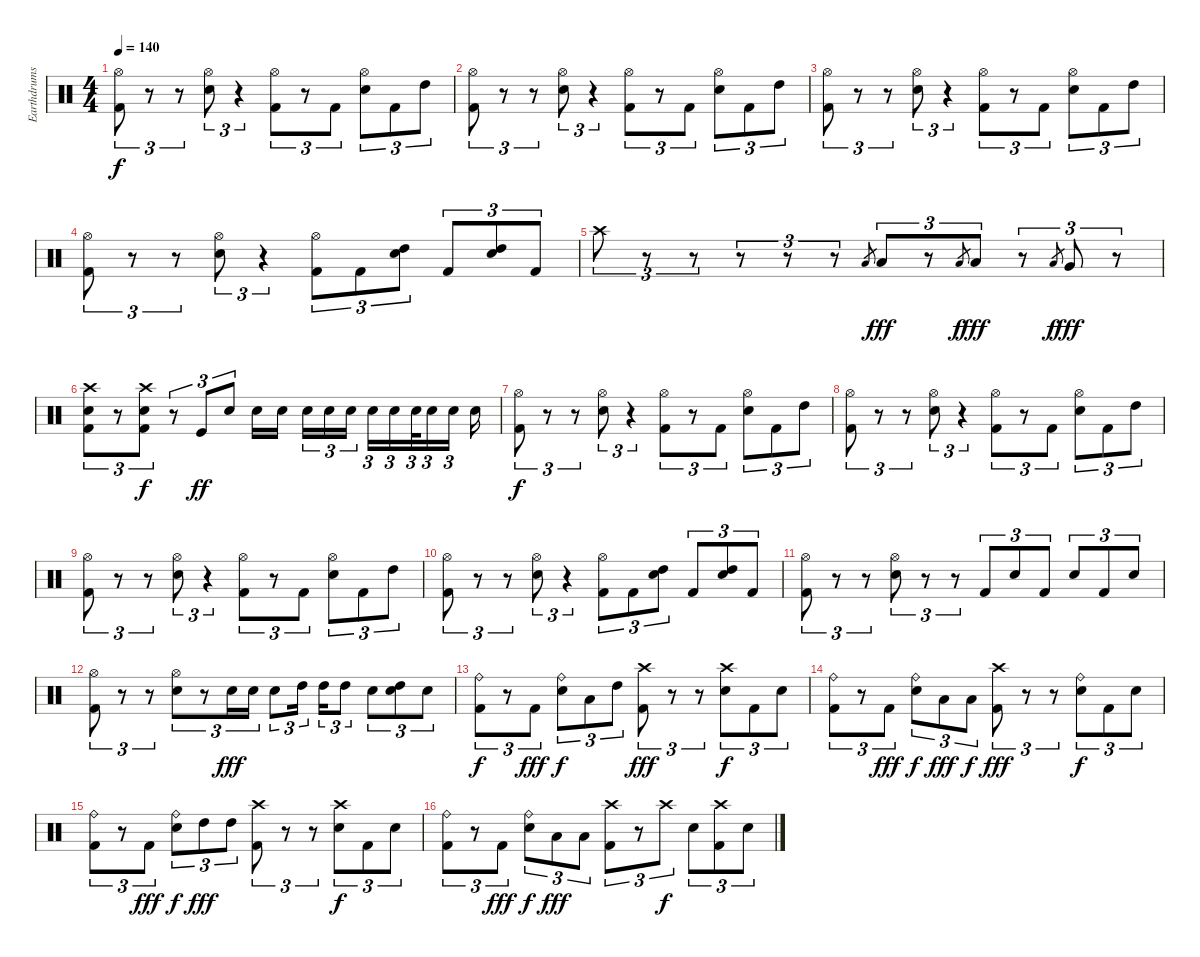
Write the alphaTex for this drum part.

\track ("Earthdrums" "Earthdrums") {instrument percussion}
\staff {score}
\articulation defaults
\ts (4 4)
\tempo 140
\clef neutral
\ks c
("Hi-Hat (open)" "Kick (hit) 2").8{tu (3 2) dy f} r.8{tu (3 2)} r.8{tu (3 2)} ("Hi-Hat (open)" "Snare (hit) 2").8{tu (3 2)} r.4{tu (3 2)} ("Hi-Hat (open)" "Kick (hit) 2").8{tu (3 2)} r.8{tu (3 2)} "Kick (hit) 2".8{tu (3 2)} ("Hi-Hat (open)" "Snare (hit) 2").8{tu (3 2)} "Kick (hit) 2".8{tu (3 2)} "High Tom (hit)".8{tu (3 2)} |
("Hi-Hat (open)" "Kick (hit) 2").8{tu (3 2)} r.8{tu (3 2)} r.8{tu (3 2)} ("Hi-Hat (open)" "Snare (hit) 2").8{tu (3 2)} r.4{tu (3 2)} ("Hi-Hat (open)" "Kick (hit) 2").8{tu (3 2)} r.8{tu (3 2)} "Kick (hit) 2".8{tu (3 2)} ("Hi-Hat (open)" "Snare (hit) 2").8{tu (3 2)} "Kick (hit) 2".8{tu (3 2)} "High Tom (hit)".8{tu (3 2)} |
("Hi-Hat (open)" "Kick (hit) 2").8{tu (3 2)} r.8{tu (3 2)} r.8{tu (3 2)} ("Hi-Hat (open)" "Snare (hit) 2").8{tu (3 2)} r.4{tu (3 2)} ("Hi-Hat (open)" "Kick (hit) 2").8{tu (3 2)} r.8{tu (3 2)} "Kick (hit) 2".8{tu (3 2)} ("Hi-Hat (open)" "Snare (hit) 2").8{tu (3 2)} "Kick (hit) 2".8{tu (3 2)} "High Tom (hit)".8{tu (3 2)} |
("Hi-Hat (open)" "Kick (hit) 2").8{tu (3 2)} r.8{tu (3 2)} r.8{tu (3 2)} ("Hi-Hat (open)" "Snare (hit) 2").8{tu (3 2)} r.4{tu (3 2)} ("Hi-Hat (open)" "Kick (hit) 2").8{tu (3 2)} "Kick (hit) 2".8{tu (3 2)} ("High Tom (hit)" "Snare (hit) 2").8{tu (3 2)} "Kick (hit) 2".8{tu (3 2)} ("High Tom (hit)" "Snare (hit) 2").8{tu (3 2)} "Kick (hit) 2".8{tu (3 2)} |
"Crash high (hit)".8{tu (3 2)} r.8{tu (3 2)} r.8{tu (3 2)} r.8{tu (3 2)} r.8{tu (3 2)} r.8{tu (3 2)} "Low Tom (hit)".8{gr} "Low Tom (hit)".8{tu (3 2) dy fff} r.8{tu (3 2)} "Low Tom (hit)".8{gr dy f} "Low Tom (hit)".8{tu (3 2) dy fff} r.8{tu (3 2)} "Low Tom (hit)".8{gr dy f} "Very Low Tom (hit)".8{tu (3 2) dy fff} r.8{tu (3 2)} |
("Crash high (hit)" "Snare (hit) 2" "Kick (hit) 2").8{tu (3 2)} r.8{tu (3 2)} ("Crash high (hit)" "Snare (hit) 2" "Kick (hit) 2").8{tu (3 2) dy f} r.8{tu (3 2)} "Kick (hit)".8{tu (3 2) dy ff} "Snare (hit) 2".8{tu (3 2)} "Snare (hit) 2".16 "Snare (hit) 2".16{beam splitsecondary} "Snare (hit) 2".16{tu (3 2)} "Snare (hit) 2".16{tu (3 2)} "Snare (hit) 2".16{tu (3 2)} "Snare (hit) 2".16{tu (3 2)} "Snare (hit) 2".16{tu (3 2)} "Snare (hit) 2".32{tu (3 2)} "Snare (hit) 2".16{tu (3 2)} "Snare (hit) 2".16{tu (3 2) beam splitsecondary} "Snare (hit) 2".16 |
("Hi-Hat (open)" "Kick (hit) 2").8{tu (3 2) dy f} r.8{tu (3 2)} r.8{tu (3 2)} ("Hi-Hat (open)" "Snare (hit) 2").8{tu (3 2)} r.4{tu (3 2)} ("Hi-Hat (open)" "Kick (hit) 2").8{tu (3 2)} r.8{tu (3 2)} "Kick (hit) 2".8{tu (3 2)} ("Hi-Hat (open)" "Snare (hit) 2").8{tu (3 2)} "Kick (hit) 2".8{tu (3 2)} "High Tom (hit)".8{tu (3 2)} |
("Hi-Hat (open)" "Kick (hit) 2").8{tu (3 2)} r.8{tu (3 2)} r.8{tu (3 2)} ("Hi-Hat (open)" "Snare (hit) 2").8{tu (3 2)} r.4{tu (3 2)} ("Hi-Hat (open)" "Kick (hit) 2").8{tu (3 2)} r.8{tu (3 2)} "Kick (hit) 2".8{tu (3 2)} ("Hi-Hat (open)" "Snare (hit) 2").8{tu (3 2)} "Kick (hit) 2".8{tu (3 2)} "High Tom (hit)".8{tu (3 2)} |
("Hi-Hat (open)" "Kick (hit) 2").8{tu (3 2)} r.8{tu (3 2)} r.8{tu (3 2)} ("Hi-Hat (open)" "Snare (hit) 2").8{tu (3 2)} r.4{tu (3 2)} ("Hi-Hat (open)" "Kick (hit) 2").8{tu (3 2)} r.8{tu (3 2)} "Kick (hit) 2".8{tu (3 2)} ("Hi-Hat (open)" "Snare (hit) 2").8{tu (3 2)} "Kick (hit) 2".8{tu (3 2)} "High Tom (hit)".8{tu (3 2)} |
("Hi-Hat (open)" "Kick (hit) 2").8{tu (3 2)} r.8{tu (3 2)} r.8{tu (3 2)} ("Hi-Hat (open)" "Snare (hit) 2").8{tu (3 2)} r.4{tu (3 2)} ("Hi-Hat (open)" "Kick (hit) 2").8{tu (3 2)} "Kick (hit) 2".8{tu (3 2)} ("High Tom (hit)" "Snare (hit) 2").8{tu (3 2)} "Kick (hit) 2".8{tu (3 2)} ("High Tom (hit)" "Snare (hit) 2").8{tu (3 2)} "Kick (hit) 2".8{tu (3 2)} |
("Hi-Hat (open)" "Kick (hit) 2").8{tu (3 2)} r.8{tu (3 2)} r.8{tu (3 2)} ("Hi-Hat (open)" "Snare (hit) 2").8{tu (3 2)} r.8{tu (3 2)} r.8{tu (3 2)} "Kick (hit) 2".8{tu (3 2)} "Snare (hit) 2".8{tu (3 2)} "Kick (hit) 2".8{tu (3 2)} "Snare (hit) 2".8{tu (3 2)} "Kick (hit) 2".8{tu (3 2)} "Snare (hit) 2".8{tu (3 2)} |
("Hi-Hat (open)" "Kick (hit) 2").8{tu (3 2)} r.8{tu (3 2)} r.8{tu (3 2)} ("Hi-Hat (open)" "Snare (hit) 2").8{tu (3 2)} r.8{tu (3 2)} "Snare (hit) 2".16{tu (3 2) dy fff} "Snare (hit) 2".16{tu (3 2)} "Snare (hit) 2".8{tu (3 2)} "High Tom (hit)".16{tu (3 2) beam splitsecondary} "High Tom (hit)".16{tu (3 2)} "High Tom (hit)".8{tu (3 2)} "Snare (hit) 2".8{tu (3 2)} ("Snare (hit) 2" "High Tom (hit)").8{tu (3 2)} "Snare (hit) 2".8{tu (3 2)} |
("Ride (bell)" "Kick (hit) 2").8{tu (3 2) dy f} r.8{tu (3 2)} "Kick (hit) 2".8{tu (3 2) dy fff} ("Ride (bell)" "Snare (hit) 2").8{tu (3 2) dy f} "Low Tom (hit)".8{tu (3 2)} "High Tom (hit)".8{tu (3 2)} ("Crash high (hit)" "Kick (hit) 2").8{tu (3 2) dy fff} r.8{tu (3 2)} r.8{tu (3 2)} ("Crash high (hit)" "Snare (hit) 2").8{tu (3 2) dy f} "Kick (hit) 2".8{tu (3 2)} "Snare (hit) 2".8{tu (3 2)} |
("Ride (bell)" "Kick (hit) 2").8{tu (3 2)} r.8{tu (3 2)} "Kick (hit) 2".8{tu (3 2) dy fff} ("Ride (bell)" "Snare (hit) 2").8{tu (3 2) dy f} "Low Tom (hit)".8{tu (3 2) dy fff} "Low Tom (hit)".8{tu (3 2) dy f} ("Crash high (hit)" "Kick (hit) 2").8{tu (3 2) dy fff} r.8{tu (3 2)} r.8{tu (3 2)} ("Ride (bell)" "Snare (hit) 2").8{tu (3 2) dy f} "Kick (hit) 2".8{tu (3 2)} "Snare (hit) 2".8{tu (3 2)} |
("Ride (bell)" "Kick (hit) 2").8{tu (3 2)} r.8{tu (3 2)} "Kick (hit) 2".8{tu (3 2) dy fff} ("Ride (bell)" "Snare (hit) 2").8{tu (3 2) dy f} "High Tom (hit)".8{tu (3 2) dy fff} "High Tom (hit)".8{tu (3 2)} ("Crash high (hit)" "Kick (hit) 2").8{tu (3 2)} r.8{tu (3 2)} r.8{tu (3 2)} ("Crash high (hit)" "Snare (hit) 2").8{tu (3 2) dy f} "Kick (hit) 2".8{tu (3 2)} "Snare (hit) 2".8{tu (3 2)} |
("Ride (bell)" "Kick (hit) 2").8{tu (3 2)} r.8{tu (3 2)} "Kick (hit) 2".8{tu (3 2) dy fff} ("Ride (bell)" "Snare (hit) 2").8{tu (3 2) dy f} "Low Tom (hit)".8{tu (3 2) dy fff} "Low Tom (hit)".8{tu (3 2)} ("Crash high (hit)" "Kick (hit) 2").8{tu (3 2)} r.8{tu (3 2)} "Crash high (hit)".8{tu (3 2) dy f} "Snare (hit) 2".8{tu (3 2)} ("Crash high (hit)" "Kick (hit) 2").8{tu (3 2)} "Snare (hit) 2".8{tu (3 2)}
